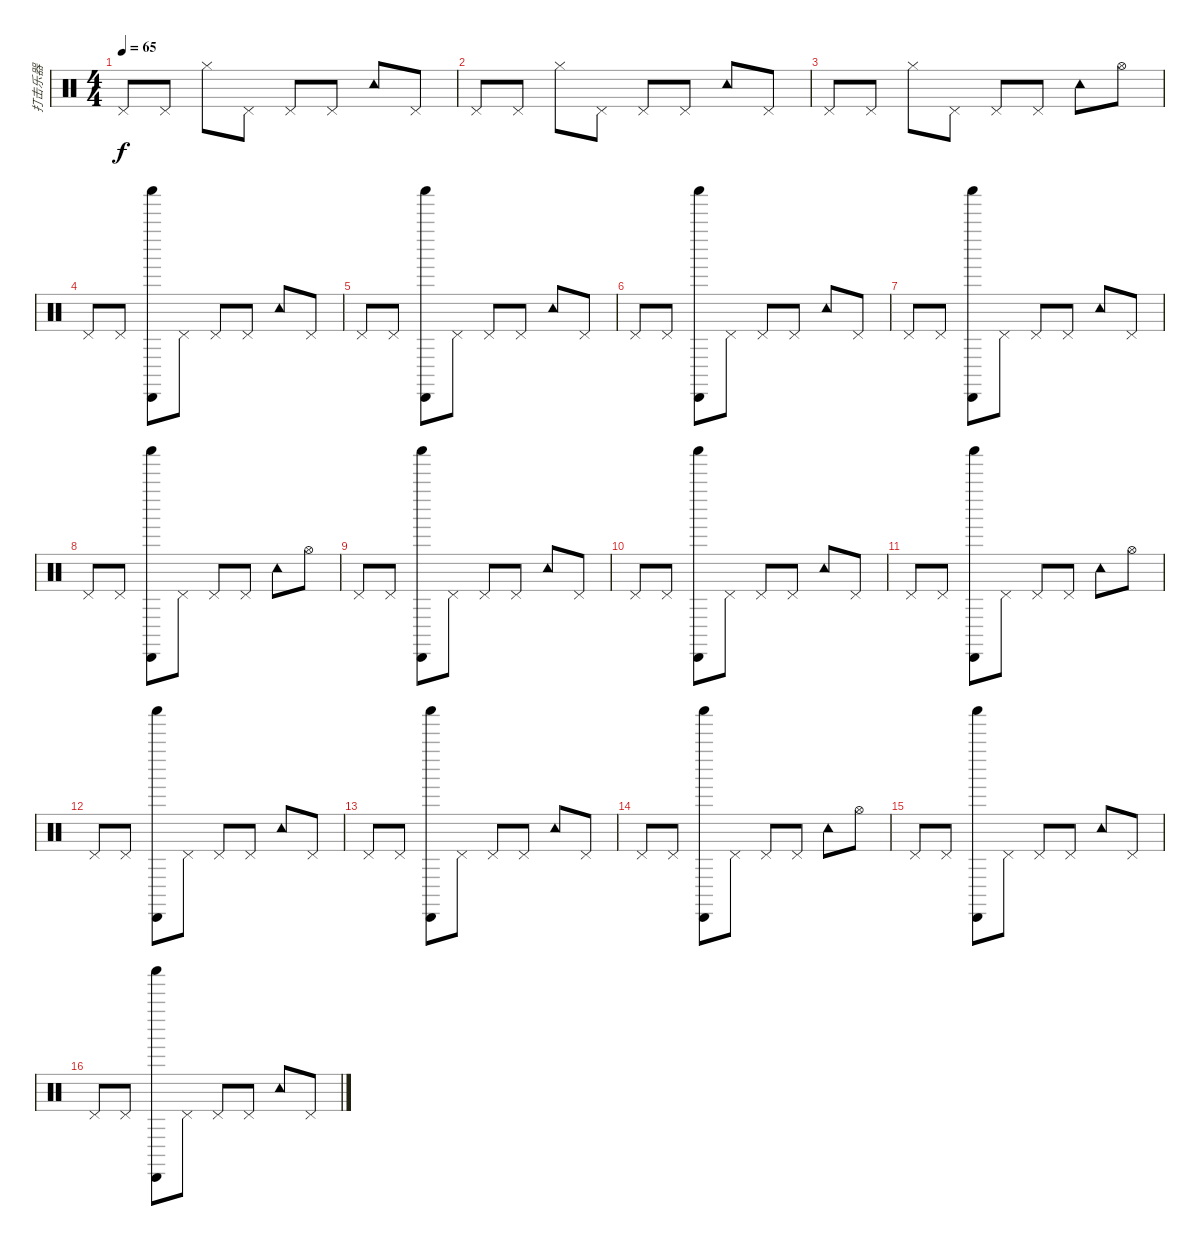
\track ("打击乐器" "打击乐器") {instrument percussion}
\staff {score}
\articulation defaults
\ts (4 4)
\tempo 65
\clef neutral
\ks c "Pedal Hi-Hat (hit)".8{dy f} "Pedal Hi-Hat (hit)".8 "Hi-Hat (closed)".8 "Pedal Hi-Hat (hit)".8 "Pedal Hi-Hat (hit)".8 "Pedal Hi-Hat (hit)".8 "Tambourine (hit)".8 "Pedal Hi-Hat (hit)".8
|
"Pedal Hi-Hat (hit)".8 "Pedal Hi-Hat (hit)".8 "Hi-Hat (closed)".8 "Pedal Hi-Hat (hit)".8 "Pedal Hi-Hat (hit)".8 "Pedal Hi-Hat (hit)".8 "Tambourine (hit)".8 "Pedal Hi-Hat (hit)".8 |
"Pedal Hi-Hat (hit)".8 "Pedal Hi-Hat (hit)".8 "Hi-Hat (closed)".8 "Pedal Hi-Hat (hit)".8 "Pedal Hi-Hat (hit)".8 "Pedal Hi-Hat (hit)".8 "Tambourine (hit)".8 "Hi-Hat (open)".8 |
"Pedal Hi-Hat (hit)".8 "Pedal Hi-Hat (hit)".8 ("Shaker (hit)" "Cabasa (hit)").8 "Pedal Hi-Hat (hit)".8 "Pedal Hi-Hat (hit)".8 "Pedal Hi-Hat (hit)".8 "Tambourine (hit)".8 "Pedal Hi-Hat (hit)".8 |
"Pedal Hi-Hat (hit)".8 "Pedal Hi-Hat (hit)".8 ("Shaker (hit)" "Cabasa (hit)").8 "Pedal Hi-Hat (hit)".8 "Pedal Hi-Hat (hit)".8 "Pedal Hi-Hat (hit)".8 "Tambourine (hit)".8 "Pedal Hi-Hat (hit)".8 |
"Pedal Hi-Hat (hit)".8 "Pedal Hi-Hat (hit)".8 ("Shaker (hit)" "Cabasa (hit)").8 "Pedal Hi-Hat (hit)".8 "Pedal Hi-Hat (hit)".8 "Pedal Hi-Hat (hit)".8 "Tambourine (hit)".8 "Pedal Hi-Hat (hit)".8 |
"Pedal Hi-Hat (hit)".8 "Pedal Hi-Hat (hit)".8 ("Shaker (hit)" "Cabasa (hit)").8 "Pedal Hi-Hat (hit)".8 "Pedal Hi-Hat (hit)".8 "Pedal Hi-Hat (hit)".8 "Tambourine (hit)".8 "Pedal Hi-Hat (hit)".8 |
"Pedal Hi-Hat (hit)".8 "Pedal Hi-Hat (hit)".8 ("Shaker (hit)" "Cabasa (hit)").8 "Pedal Hi-Hat (hit)".8 "Pedal Hi-Hat (hit)".8 "Pedal Hi-Hat (hit)".8 "Tambourine (hit)".8 "Hi-Hat (open)".8 |
"Pedal Hi-Hat (hit)".8 "Pedal Hi-Hat (hit)".8 ("Shaker (hit)" "Cabasa (hit)").8 "Pedal Hi-Hat (hit)".8 "Pedal Hi-Hat (hit)".8 "Pedal Hi-Hat (hit)".8 "Tambourine (hit)".8 "Pedal Hi-Hat (hit)".8 |
"Pedal Hi-Hat (hit)".8 "Pedal Hi-Hat (hit)".8 ("Shaker (hit)" "Cabasa (hit)").8 "Pedal Hi-Hat (hit)".8 "Pedal Hi-Hat (hit)".8 "Pedal Hi-Hat (hit)".8 "Tambourine (hit)".8 "Pedal Hi-Hat (hit)".8 |
"Pedal Hi-Hat (hit)".8 "Pedal Hi-Hat (hit)".8 ("Shaker (hit)" "Cabasa (hit)").8 "Pedal Hi-Hat (hit)".8 "Pedal Hi-Hat (hit)".8 "Pedal Hi-Hat (hit)".8 "Tambourine (hit)".8 "Hi-Hat (open)".8 |
"Pedal Hi-Hat (hit)".8 "Pedal Hi-Hat (hit)".8 ("Shaker (hit)" "Cabasa (hit)").8 "Pedal Hi-Hat (hit)".8 "Pedal Hi-Hat (hit)".8 "Pedal Hi-Hat (hit)".8 "Tambourine (hit)".8 "Pedal Hi-Hat (hit)".8 |
"Pedal Hi-Hat (hit)".8 "Pedal Hi-Hat (hit)".8 ("Shaker (hit)" "Cabasa (hit)").8 "Pedal Hi-Hat (hit)".8 "Pedal Hi-Hat (hit)".8 "Pedal Hi-Hat (hit)".8 "Tambourine (hit)".8 "Pedal Hi-Hat (hit)".8 |
"Pedal Hi-Hat (hit)".8 "Pedal Hi-Hat (hit)".8 ("Shaker (hit)" "Cabasa (hit)").8 "Pedal Hi-Hat (hit)".8 "Pedal Hi-Hat (hit)".8 "Pedal Hi-Hat (hit)".8 "Tambourine (hit)".8 "Hi-Hat (open)".8 |
"Pedal Hi-Hat (hit)".8 "Pedal Hi-Hat (hit)".8 ("Shaker (hit)" "Cabasa (hit)").8 "Pedal Hi-Hat (hit)".8 "Pedal Hi-Hat (hit)".8 "Pedal Hi-Hat (hit)".8 "Tambourine (hit)".8 "Pedal Hi-Hat (hit)".8 |
"Pedal Hi-Hat (hit)".8 "Pedal Hi-Hat (hit)".8 ("Shaker (hit)" "Cabasa (hit)").8 "Pedal Hi-Hat (hit)".8 "Pedal Hi-Hat (hit)".8 "Pedal Hi-Hat (hit)".8 "Tambourine (hit)".8 "Pedal Hi-Hat (hit)".8
